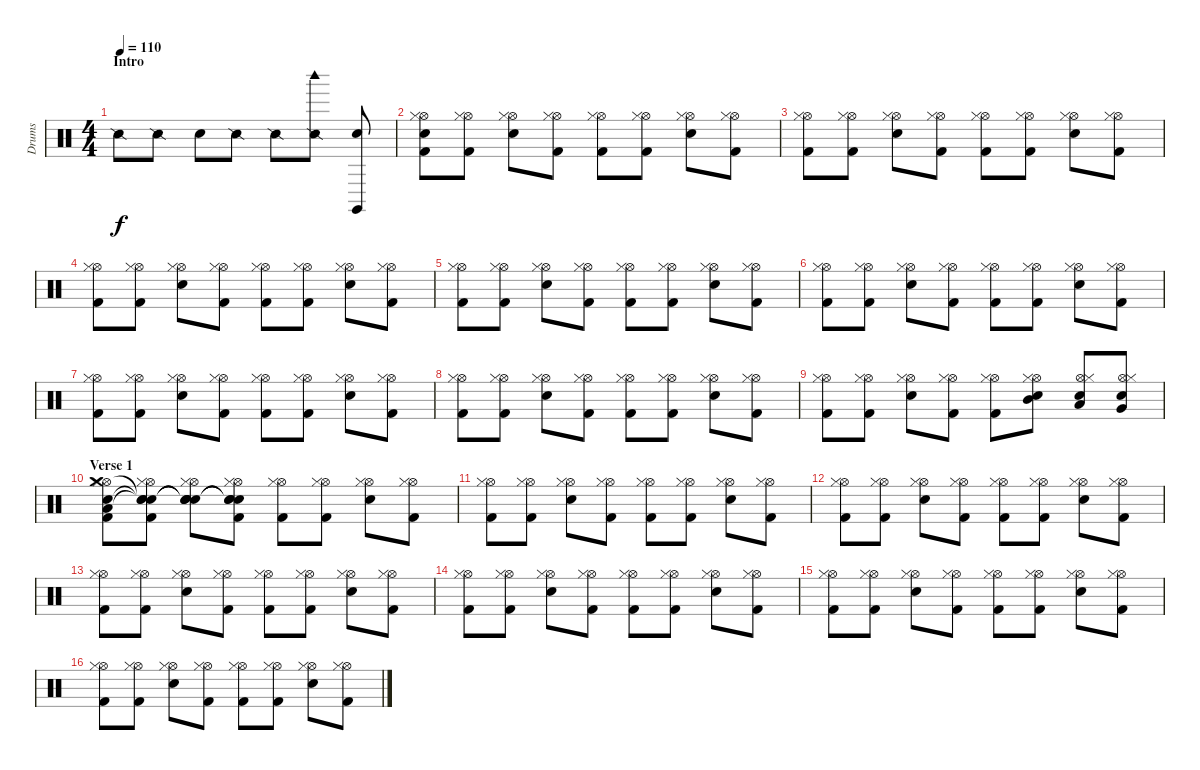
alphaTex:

\track ("Drums" "Drums") {instrument percussion}
\staff {score}
\articulation defaults
\ts (4 4)
\section ("" "Intro")
\tempo 110
\clef neutral
\ks c "Snare (side stick) 2".8{dy f} "Snare (side stick) 2".8 "Snare (hit) 2".8 "Snare (side stick) 2".8 "Snare (side stick) 2".8
("Woodblock high (hit)" "Snare (side stick) 2").8 ("Claves (hit)" "Snare (hit) 2").8 |
("Hi-Hat (open)" "Hi-Hat (closed)" "Electric Snare (hit)" "Kick (hit) 2").8 ("Hi-Hat (open)" "Hi-Hat (closed)" "Kick (hit) 2").8 ("Hi-Hat (open)" "Hi-Hat (closed)" "Snare (hit) 2").8 ("Hi-Hat (open)" "Hi-Hat (closed)" "Kick (hit) 2").8 ("Hi-Hat (open)" "Hi-Hat (closed)" "Kick (hit) 2").8 ("Hi-Hat (open)" "Hi-Hat (closed)" "Kick (hit) 2").8 ("Hi-Hat (open)" "Hi-Hat (closed)" "Snare (hit) 2").8 ("Hi-Hat (open)" "Hi-Hat (closed)" "Kick (hit) 2").8 |
("Hi-Hat (open)" "Hi-Hat (closed)" "Kick (hit) 2").8 ("Hi-Hat (open)" "Hi-Hat (closed)" "Kick (hit) 2").8 ("Hi-Hat (open)" "Hi-Hat (closed)" "Snare (hit) 2").8 ("Hi-Hat (open)" "Hi-Hat (closed)" "Kick (hit) 2").8 ("Hi-Hat (open)" "Hi-Hat (closed)" "Kick (hit) 2").8 ("Hi-Hat (open)" "Hi-Hat (closed)" "Kick (hit) 2").8 ("Hi-Hat (open)" "Hi-Hat (closed)" "Snare (hit) 2").8 ("Hi-Hat (open)" "Hi-Hat (closed)" "Kick (hit) 2").8 |
("Hi-Hat (open)" "Hi-Hat (closed)" "Kick (hit) 2").8 ("Hi-Hat (open)" "Hi-Hat (closed)" "Kick (hit) 2").8 ("Hi-Hat (open)" "Hi-Hat (closed)" "Snare (hit) 2").8 ("Hi-Hat (open)" "Hi-Hat (closed)" "Kick (hit) 2").8 ("Hi-Hat (open)" "Hi-Hat (closed)" "Kick (hit) 2").8 ("Hi-Hat (open)" "Hi-Hat (closed)" "Kick (hit) 2").8 ("Hi-Hat (open)" "Hi-Hat (closed)" "Snare (hit) 2").8 ("Hi-Hat (open)" "Hi-Hat (closed)" "Kick (hit) 2").8 |
("Hi-Hat (open)" "Hi-Hat (closed)" "Kick (hit) 2").8 ("Hi-Hat (open)" "Hi-Hat (closed)" "Kick (hit) 2").8 ("Hi-Hat (open)" "Hi-Hat (closed)" "Snare (hit) 2").8 ("Hi-Hat (open)" "Hi-Hat (closed)" "Kick (hit) 2").8 ("Hi-Hat (open)" "Hi-Hat (closed)" "Kick (hit) 2").8 ("Hi-Hat (open)" "Hi-Hat (closed)" "Kick (hit) 2").8 ("Hi-Hat (open)" "Hi-Hat (closed)" "Snare (hit) 2").8 ("Hi-Hat (open)" "Hi-Hat (closed)" "Kick (hit) 2").8 |
("Hi-Hat (open)" "Hi-Hat (closed)" "Kick (hit) 2").8 ("Hi-Hat (open)" "Hi-Hat (closed)" "Kick (hit) 2").8 ("Hi-Hat (open)" "Hi-Hat (closed)" "Snare (hit) 2").8 ("Hi-Hat (open)" "Hi-Hat (closed)" "Kick (hit) 2").8 ("Hi-Hat (open)" "Hi-Hat (closed)" "Kick (hit) 2").8 ("Hi-Hat (open)" "Hi-Hat (closed)" "Kick (hit) 2").8 ("Hi-Hat (open)" "Hi-Hat (closed)" "Snare (hit) 2").8 ("Hi-Hat (open)" "Hi-Hat (closed)" "Kick (hit) 2").8 |
("Hi-Hat (open)" "Hi-Hat (closed)" "Kick (hit) 2").8 ("Hi-Hat (open)" "Hi-Hat (closed)" "Kick (hit) 2").8 ("Hi-Hat (open)" "Hi-Hat (closed)" "Snare (hit) 2").8 ("Hi-Hat (open)" "Hi-Hat (closed)" "Kick (hit) 2").8 ("Hi-Hat (open)" "Hi-Hat (closed)" "Kick (hit) 2").8 ("Hi-Hat (open)" "Hi-Hat (closed)" "Kick (hit) 2").8 ("Hi-Hat (open)" "Hi-Hat (closed)" "Snare (hit) 2").8 ("Hi-Hat (open)" "Hi-Hat (closed)" "Kick (hit) 2").8 |
("Hi-Hat (open)" "Hi-Hat (closed)" "Kick (hit) 2").8 ("Hi-Hat (open)" "Hi-Hat (closed)" "Kick (hit) 2").8 ("Hi-Hat (open)" "Hi-Hat (closed)" "Snare (hit) 2").8 ("Hi-Hat (open)" "Hi-Hat (closed)" "Kick (hit) 2").8 ("Hi-Hat (open)" "Hi-Hat (closed)" "Kick (hit) 2").8 ("Hi-Hat (open)" "Hi-Hat (closed)" "Kick (hit) 2").8 ("Hi-Hat (open)" "Hi-Hat (closed)" "Snare (hit) 2").8 ("Hi-Hat (open)" "Hi-Hat (closed)" "Kick (hit) 2").8 |
("Hi-Hat (open)" "Hi-Hat (closed)" "Kick (hit) 2").8 ("Hi-Hat (open)" "Hi-Hat (closed)" "Kick (hit) 2").8 ("Hi-Hat (open)" "Hi-Hat (closed)" "Snare (hit) 2").8 ("Hi-Hat (open)" "Hi-Hat (closed)" "Kick (hit) 2").8 ("Hi-Hat (open)" "Hi-Hat (closed)" "Kick (hit) 2").8 ("Hi-Hat (open)" "Hi-Hat (closed)" "Snare (hit) 2" "Mid Tom (hit)").8 ("Hi-Hat (open)" "Hi-Hat (closed)" "Snare (hit) 2" "Low Tom (hit)").8 ("Hi-Hat (open)" "Hi-Hat (closed)" "Snare (hit) 2" "Very Low Tom (hit)").8 |
\section ("" "Verse 1")
("Hi-Hat (open)" "Hi-Hat (closed)" "Electric Snare (hit)" "Kick (hit) 2" "Low Floor Tom (hit)" "Crash medium (hit)").8 ("Hi-Hat (open)" "Hi-Hat (closed)" "Snare (hit)"{t} "Kick (hit) 2" "Snare (hit)"{t} "Snare (hit)"{t}).8 ("Hi-Hat (open)" "Hi-Hat (closed)" "Snare (hit)"{t} "Snare (hit) 2" "Snare (hit)"{t} "Snare (hit)"{t}).8 ("Hi-Hat (open)" "Hi-Hat (closed)" "Snare (hit)"{t} "Kick (hit) 2" "Snare (hit)"{t} "Snare (hit)"{t}).8 ("Hi-Hat (open)" "Hi-Hat (closed)" "Kick (hit) 2").8 ("Hi-Hat (open)" "Hi-Hat (closed)" "Kick (hit) 2").8 ("Hi-Hat (open)" "Hi-Hat (closed)" "Snare (hit) 2").8 ("Hi-Hat (open)" "Hi-Hat (closed)" "Kick (hit) 2").8 |
("Hi-Hat (open)" "Hi-Hat (closed)" "Kick (hit) 2").8 ("Hi-Hat (open)" "Hi-Hat (closed)" "Kick (hit) 2").8 ("Hi-Hat (open)" "Hi-Hat (closed)" "Snare (hit) 2").8 ("Hi-Hat (open)" "Hi-Hat (closed)" "Kick (hit) 2").8 ("Hi-Hat (open)" "Hi-Hat (closed)" "Kick (hit) 2").8 ("Hi-Hat (open)" "Hi-Hat (closed)" "Kick (hit) 2").8 ("Hi-Hat (open)" "Hi-Hat (closed)" "Snare (hit) 2").8 ("Hi-Hat (open)" "Hi-Hat (closed)" "Kick (hit) 2").8 |
("Hi-Hat (open)" "Hi-Hat (closed)" "Kick (hit) 2").8 ("Hi-Hat (open)" "Hi-Hat (closed)" "Kick (hit) 2").8 ("Hi-Hat (open)" "Hi-Hat (closed)" "Snare (hit) 2").8 ("Hi-Hat (open)" "Hi-Hat (closed)" "Kick (hit) 2").8 ("Hi-Hat (open)" "Hi-Hat (closed)" "Kick (hit) 2").8 ("Hi-Hat (open)" "Hi-Hat (closed)" "Kick (hit) 2").8 ("Hi-Hat (open)" "Hi-Hat (closed)" "Snare (hit) 2").8 ("Hi-Hat (open)" "Hi-Hat (closed)" "Kick (hit) 2").8 |
("Hi-Hat (open)" "Hi-Hat (closed)" "Kick (hit) 2").8 ("Hi-Hat (open)" "Hi-Hat (closed)" "Kick (hit) 2").8 ("Hi-Hat (open)" "Hi-Hat (closed)" "Snare (hit) 2").8 ("Hi-Hat (open)" "Hi-Hat (closed)" "Kick (hit) 2").8 ("Hi-Hat (open)" "Hi-Hat (closed)" "Kick (hit) 2").8 ("Hi-Hat (open)" "Hi-Hat (closed)" "Kick (hit) 2").8 ("Hi-Hat (open)" "Hi-Hat (closed)" "Snare (hit) 2").8 ("Hi-Hat (open)" "Hi-Hat (closed)" "Kick (hit) 2").8 |
("Hi-Hat (open)" "Hi-Hat (closed)" "Kick (hit) 2").8 ("Hi-Hat (open)" "Hi-Hat (closed)" "Kick (hit) 2").8 ("Hi-Hat (open)" "Hi-Hat (closed)" "Snare (hit) 2").8 ("Hi-Hat (open)" "Hi-Hat (closed)" "Kick (hit) 2").8 ("Hi-Hat (open)" "Hi-Hat (closed)" "Kick (hit) 2").8 ("Hi-Hat (open)" "Hi-Hat (closed)" "Kick (hit) 2").8 ("Hi-Hat (open)" "Hi-Hat (closed)" "Snare (hit) 2").8 ("Hi-Hat (open)" "Hi-Hat (closed)" "Kick (hit) 2").8 |
("Hi-Hat (open)" "Hi-Hat (closed)" "Kick (hit) 2").8 ("Hi-Hat (open)" "Hi-Hat (closed)" "Kick (hit) 2").8 ("Hi-Hat (open)" "Hi-Hat (closed)" "Snare (hit) 2").8 ("Hi-Hat (open)" "Hi-Hat (closed)" "Kick (hit) 2").8 ("Hi-Hat (open)" "Hi-Hat (closed)" "Kick (hit) 2").8 ("Hi-Hat (open)" "Hi-Hat (closed)" "Kick (hit) 2").8 ("Hi-Hat (open)" "Hi-Hat (closed)" "Snare (hit) 2").8 ("Hi-Hat (open)" "Hi-Hat (closed)" "Kick (hit) 2").8 |
("Hi-Hat (open)" "Hi-Hat (closed)" "Kick (hit) 2").8 ("Hi-Hat (open)" "Hi-Hat (closed)" "Kick (hit) 2").8 ("Hi-Hat (open)" "Hi-Hat (closed)" "Snare (hit) 2").8 ("Hi-Hat (open)" "Hi-Hat (closed)" "Kick (hit) 2").8 ("Hi-Hat (open)" "Hi-Hat (closed)" "Kick (hit) 2").8 ("Hi-Hat (open)" "Hi-Hat (closed)" "Kick (hit) 2").8 ("Hi-Hat (open)" "Hi-Hat (closed)" "Snare (hit) 2").8 ("Hi-Hat (open)" "Hi-Hat (closed)" "Kick (hit) 2").8
